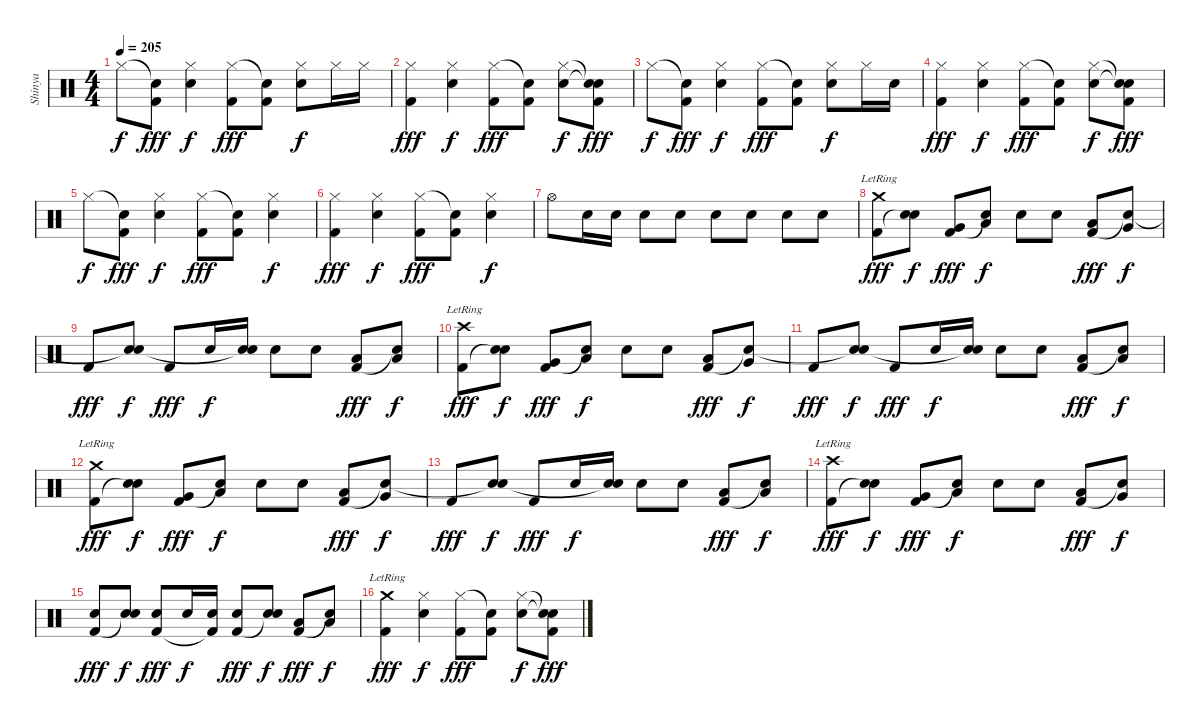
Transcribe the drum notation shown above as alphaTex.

\track ("Shinya" "Shinya") {instrument percussion}
\staff {score}
\articulation defaults
\ts (4 4)
\tempo 205
\clef neutral
\ks c "Hi-Hat (closed)".8{dy f}
("Snare (hit)"{t} "Kick (hit) 2").8{dy fff} ("Hi-Hat (closed)" "Electric Snare (hit)").4{dy f} ("Hi-Hat (closed)" "Kick (hit) 2").8{dy fff} ("Snare (hit)"{t} "Kick (hit) 2").8 ("Hi-Hat (closed)" "Electric Snare (hit)").8{dy f} "Hi-Hat (closed)".16 "Hi-Hat (closed)".16 |
("Hi-Hat (closed)" "Kick (hit) 2").4{dy fff} ("Hi-Hat (closed)" "Electric Snare (hit)").4{dy f} ("Hi-Hat (closed)" "Kick (hit) 2").8{dy fff} ("Snare (hit)"{t} "Kick (hit) 2").8 ("Hi-Hat (closed)" "Electric Snare (hit)").8{dy f} ("Snare (hit)"{t} "Snare (hit)"{t} "Kick (hit) 2").8{dy fff} |
"Hi-Hat (closed)".8{dy f} ("Snare (hit)"{t} "Kick (hit) 2").8{dy fff} ("Hi-Hat (closed)" "Electric Snare (hit)").4{dy f} ("Hi-Hat (closed)" "Kick (hit) 2").8{dy fff} ("Snare (hit)"{t} "Kick (hit) 2").8 ("Hi-Hat (closed)" "Electric Snare (hit)").8{dy f} "Hi-Hat (closed)".16 "Electric Snare (hit)".16 |
("Hi-Hat (closed)" "Kick (hit) 2").4{dy fff} ("Hi-Hat (closed)" "Electric Snare (hit)").4{dy f} ("Hi-Hat (closed)" "Kick (hit) 2").8{dy fff} ("Snare (hit)"{t} "Kick (hit) 2").8 ("Hi-Hat (closed)" "Electric Snare (hit)").8{dy f} ("Snare (hit)"{t} "Snare (hit)"{t} "Kick (hit) 2").8{dy fff} |
"Hi-Hat (closed)".8{dy f} ("Snare (hit)"{t} "Kick (hit) 2").8{dy fff} ("Hi-Hat (closed)" "Electric Snare (hit)").4{dy f} ("Hi-Hat (closed)" "Kick (hit) 2").8{dy fff} ("Snare (hit)"{t} "Kick (hit) 2").8 ("Hi-Hat (closed)" "Electric Snare (hit)").4{dy f} |
("Hi-Hat (closed)" "Kick (hit) 2").4{dy fff} ("Hi-Hat (closed)" "Electric Snare (hit)").4{dy f} ("Hi-Hat (closed)" "Kick (hit) 2").8{dy fff} ("Snare (hit)"{t} "Kick (hit) 2").8 ("Hi-Hat (closed)" "Electric Snare (hit)").4{dy f} |
"Hi-Hat (open)".8 "Electric Snare (hit)".16 "Electric Snare (hit)".16 "Electric Snare (hit)".8 "Electric Snare (hit)".8 "Electric Snare (hit)".8 "Electric Snare (hit)".8 "Electric Snare (hit)".8 "Electric Snare (hit)".8 |
("Crash medium (hit)"{lr} "Kick (hit) 2").8{dy fff} ("Electric Snare (hit)" "Snare (hit)"{t}).8{dy f} ("Very Low Tom (hit)" "Kick (hit) 2").8{dy fff} ("Low Floor Tom (hit)" "Snare (hit)"{t}).8{dy f} "Electric Snare (hit)".8 "Electric Snare (hit)".8 ("Low Tom (hit)" "Kick (hit) 2").8{dy fff} ("Very Low Tom (hit)" "Snare (hit)"{t}).8{dy f} |
"Kick (hit) 2".8{dy fff} ("Electric Snare (hit)" "Snare (hit)"{t}).8{dy f} "Kick (hit) 2".8{dy fff} "Electric Snare (hit)".16{dy f} ("Electric Snare (hit)" "Snare (hit)"{t}).16 "Electric Snare (hit)".8 "Electric Snare (hit)".8 ("Low Floor Tom (hit)" "Kick (hit) 2").8{dy fff} ("Low Floor Tom (hit)" "Snare (hit)"{t}).8{dy f} |
("Crash high (hit)"{lr} "Kick (hit) 2").8{dy fff} ("Electric Snare (hit)" "Snare (hit)"{t}).8{dy f} ("Very Low Tom (hit)" "Kick (hit) 2").8{dy fff} ("Low Floor Tom (hit)" "Snare (hit)"{t}).8{dy f} "Electric Snare (hit)".8 "Electric Snare (hit)".8 ("Low Tom (hit)" "Kick (hit) 2").8{dy fff} ("Very Low Tom (hit)" "Snare (hit)"{t}).8{dy f} |
"Kick (hit) 2".8{dy fff} ("Electric Snare (hit)" "Snare (hit)"{t}).8{dy f} "Kick (hit) 2".8{dy fff} "Electric Snare (hit)".16{dy f} ("Electric Snare (hit)" "Snare (hit)"{t}).16 "Electric Snare (hit)".8 "Electric Snare (hit)".8 ("Low Floor Tom (hit)" "Kick (hit) 2").8{dy fff} ("Low Floor Tom (hit)" "Snare (hit)"{t}).8{dy f} |
("Crash medium (hit)"{lr} "Kick (hit) 2").8{dy fff} ("Electric Snare (hit)" "Snare (hit)"{t}).8{dy f} ("Very Low Tom (hit)" "Kick (hit) 2").8{dy fff} ("Low Floor Tom (hit)" "Snare (hit)"{t}).8{dy f} "Electric Snare (hit)".8 "Electric Snare (hit)".8 ("Low Tom (hit)" "Kick (hit) 2").8{dy fff} ("Very Low Tom (hit)" "Snare (hit)"{t}).8{dy f} |
"Kick (hit) 2".8{dy fff} ("Electric Snare (hit)" "Snare (hit)"{t}).8{dy f} "Kick (hit) 2".8{dy fff} "Electric Snare (hit)".16{dy f} ("Electric Snare (hit)" "Snare (hit)"{t}).16 "Electric Snare (hit)".8 "Electric Snare (hit)".8 ("Low Floor Tom (hit)" "Kick (hit) 2").8{dy fff} ("Low Floor Tom (hit)" "Snare (hit)"{t}).8{dy f} |
("Crash high (hit)"{lr} "Kick (hit) 2").8{dy fff} ("Electric Snare (hit)" "Snare (hit)"{t}).8{dy f} ("Very Low Tom (hit)" "Kick (hit) 2").8{dy fff} ("Low Floor Tom (hit)" "Snare (hit)"{t}).8{dy f} "Electric Snare (hit)".8 "Electric Snare (hit)".8 ("Low Tom (hit)" "Kick (hit) 2").8{dy fff} ("Very Low Tom (hit)" "Snare (hit)"{t}).8{dy f} |
("Electric Snare (hit)" "Kick (hit) 2").8{dy fff} ("Electric Snare (hit)" "Snare (hit)"{t}).8{dy f} ("Electric Snare (hit)" "Kick (hit) 2").8{dy fff} "Electric Snare (hit)".16{dy f} ("Electric Snare (hit)" "Kick (hit) 2"{t}).16 ("Electric Snare (hit)" "Kick (hit) 2").8{dy fff} ("Electric Snare (hit)" "Snare (hit)"{t}).8{dy f} ("Low Floor Tom (hit)" "Kick (hit) 2").8{dy fff} ("Low Floor Tom (hit)" "Snare (hit)"{t}).8{dy f} |
("Crash medium (hit)"{lr} "Kick (hit) 2").4{dy fff} ("Hi-Hat (closed)" "Electric Snare (hit)").4{dy f} ("Hi-Hat (closed)" "Kick (hit) 2").8{dy fff} ("Snare (hit)"{t} "Kick (hit) 2").8 ("Hi-Hat (closed)" "Electric Snare (hit)").8{dy f} ("Snare (hit)"{t} "Snare (hit)"{t} "Kick (hit) 2").8{dy fff}
